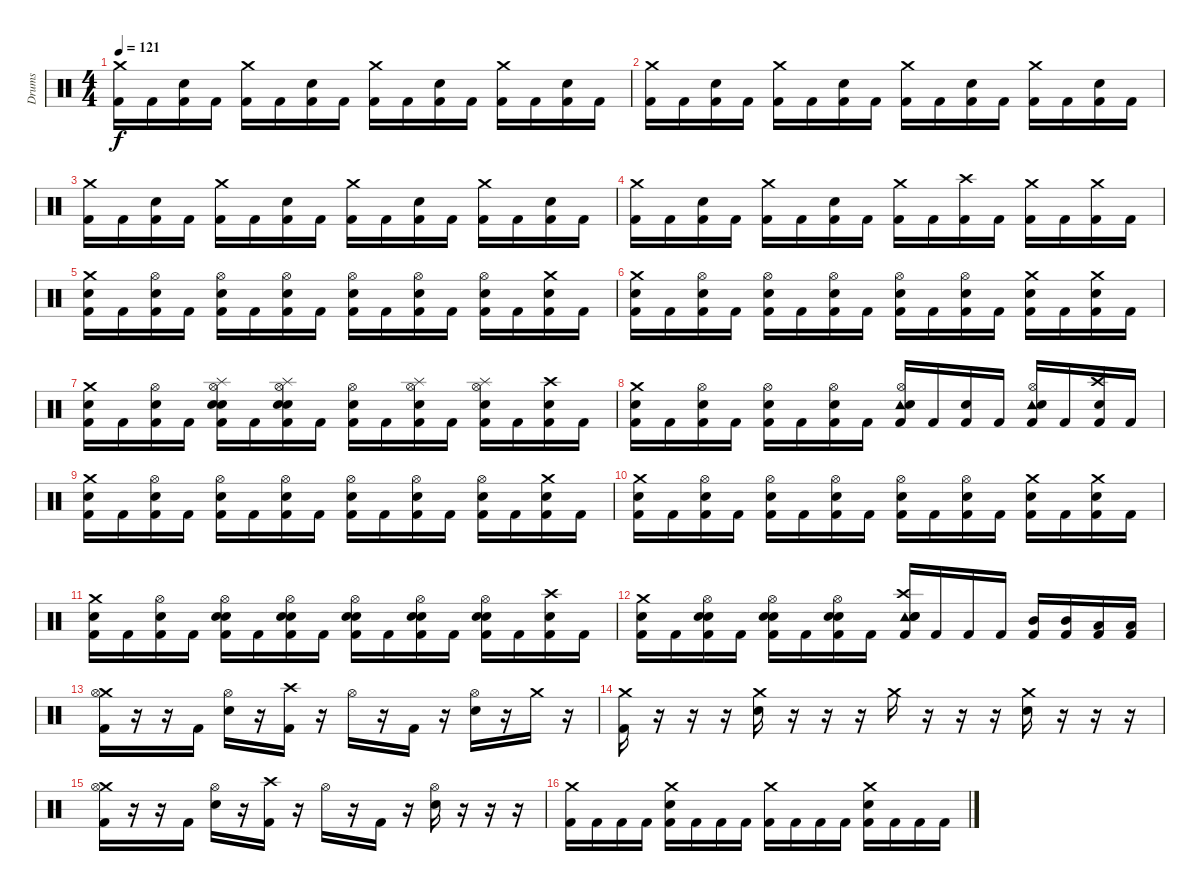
\track ("Drums" "Drums") {instrument percussion}
\staff {score}
\articulation defaults
\ts (4 4)
\tempo 121
\clef neutral
\ks c
("Crash medium (hit)" "Kick (hit) 2").16{dy f} "Kick (hit) 2".16 ("Electric Snare (hit)" "Kick (hit) 2").16 "Kick (hit) 2".16 ("Crash medium (hit)" "Kick (hit) 2").16 "Kick (hit) 2".16 ("Electric Snare (hit)" "Kick (hit) 2").16 "Kick (hit) 2".16 ("Crash medium (hit)" "Kick (hit) 2").16 "Kick (hit) 2".16 ("Electric Snare (hit)" "Kick (hit) 2").16 "Kick (hit) 2".16 ("Crash medium (hit)" "Kick (hit) 2").16 "Kick (hit) 2".16 ("Electric Snare (hit)" "Kick (hit) 2").16 "Kick (hit) 2".16 |
("Crash medium (hit)" "Kick (hit) 2").16 "Kick (hit) 2".16 ("Electric Snare (hit)" "Kick (hit) 2").16 "Kick (hit) 2".16 ("Crash medium (hit)" "Kick (hit) 2").16 "Kick (hit) 2".16 ("Electric Snare (hit)" "Kick (hit) 2").16 "Kick (hit) 2".16 ("Crash medium (hit)" "Kick (hit) 2").16 "Kick (hit) 2".16 ("Electric Snare (hit)" "Kick (hit) 2").16 "Kick (hit) 2".16 ("Crash medium (hit)" "Kick (hit) 2").16 "Kick (hit) 2".16 ("Electric Snare (hit)" "Kick (hit) 2").16 "Kick (hit) 2".16 |
("Crash medium (hit)" "Kick (hit) 2").16 "Kick (hit) 2".16 ("Electric Snare (hit)" "Kick (hit) 2").16 "Kick (hit) 2".16 ("Crash medium (hit)" "Kick (hit) 2").16 "Kick (hit) 2".16 ("Electric Snare (hit)" "Kick (hit) 2").16 "Kick (hit) 2".16 ("Crash medium (hit)" "Kick (hit) 2").16 "Kick (hit) 2".16 ("Electric Snare (hit)" "Kick (hit) 2").16 "Kick (hit) 2".16 ("Crash medium (hit)" "Kick (hit) 2").16 "Kick (hit) 2".16 ("Electric Snare (hit)" "Kick (hit) 2").16 "Kick (hit) 2".16 |
("Crash medium (hit)" "Kick (hit) 2").16 "Kick (hit) 2".16 ("Electric Snare (hit)" "Kick (hit) 2").16 "Kick (hit) 2".16 ("Crash medium (hit)" "Kick (hit) 2").16 "Kick (hit) 2".16 ("Electric Snare (hit)" "Kick (hit) 2").16 "Kick (hit) 2".16 ("Crash medium (hit)" "Kick (hit) 2").16 "Kick (hit) 2".16 ("Crash high (hit)" "Kick (hit) 2").16 "Kick (hit) 2".16 ("Crash medium (hit)" "Kick (hit) 2").16 "Kick (hit) 2".16 ("Crash medium (hit)" "Kick (hit) 2").16 "Kick (hit) 2".16 |
("Crash medium (hit)" "Snare (hit) 2" "Kick (hit) 2").16 "Kick (hit) 2".16 ("Hi-Hat (open)" "Snare (hit) 2" "Kick (hit) 2").16 "Kick (hit) 2".16 ("Hi-Hat (open)" "Snare (hit) 2" "Kick (hit) 2").16 "Kick (hit) 2".16 ("Hi-Hat (open)" "Snare (hit) 2" "Kick (hit) 2").16 "Kick (hit) 2".16 ("Hi-Hat (open)" "Snare (hit) 2" "Kick (hit) 2").16 "Kick (hit) 2".16 ("Hi-Hat (open)" "Snare (hit) 2" "Kick (hit) 2").16 "Kick (hit) 2".16 ("Hi-Hat (open)" "Snare (hit) 2" "Kick (hit) 2").16 "Kick (hit) 2".16 ("Crash medium (hit)" "Snare (hit) 2" "Kick (hit) 2").16 "Kick (hit) 2".16 |
("Crash medium (hit)" "Snare (hit) 2" "Kick (hit) 2").16 "Kick (hit) 2".16 ("Hi-Hat (open)" "Snare (hit) 2" "Kick (hit) 2").16 "Kick (hit) 2".16 ("Hi-Hat (open)" "Snare (hit) 2" "Kick (hit) 2").16 "Kick (hit) 2".16 ("Hi-Hat (open)" "Snare (hit) 2" "Kick (hit) 2").16 "Kick (hit) 2".16 ("Hi-Hat (open)" "Snare (hit) 2" "Kick (hit) 2").16 "Kick (hit) 2".16 ("Hi-Hat (open)" "Snare (hit) 2" "Kick (hit) 2").16 "Kick (hit) 2".16 ("Crash medium (hit)" "Snare (hit) 2" "Kick (hit) 2").16 "Kick (hit) 2".16 ("Crash medium (hit)" "Snare (hit) 2" "Kick (hit) 2").16 "Kick (hit) 2".16 |
("Crash medium (hit)" "Snare (hit) 2" "Kick (hit) 2").16 "Kick (hit) 2".16 ("Hi-Hat (open)" "Snare (hit) 2" "Kick (hit) 2").16 "Kick (hit) 2".16 ("Hi-Hat (open)" "Splash (hit)" "Electric Snare (hit)" "Snare (hit) 2" "Kick (hit) 2").16 "Kick (hit) 2".16 ("Hi-Hat (open)" "Splash (hit)" "Electric Snare (hit)" "Snare (hit) 2" "Kick (hit) 2").16 "Kick (hit) 2".16 ("Hi-Hat (open)" "Snare (hit) 2" "Kick (hit) 2").16 "Kick (hit) 2".16 ("Hi-Hat (open)" "Splash (hit)" "Snare (hit) 2" "Kick (hit) 2").16 "Kick (hit) 2".16 ("Hi-Hat (open)" "Splash (hit)" "Snare (hit) 2" "Kick (hit) 2").16 "Kick (hit) 2".16 ("Crash high (hit)" "Snare (hit) 2" "Kick (hit) 2").16 "Kick (hit) 2".16 |
("Crash medium (hit)" "Snare (hit) 2" "Kick (hit) 2").16 "Kick (hit) 2".16 ("Hi-Hat (open)" "Snare (hit) 2" "Kick (hit) 2").16 "Kick (hit) 2".16 ("Hi-Hat (open)" "Snare (hit) 2" "Kick (hit) 2").16 "Kick (hit) 2".16 ("Hi-Hat (open)" "Snare (hit) 2" "Kick (hit) 2").16 "Kick (hit) 2".16 ("Hi-Hat (open)" "Tambourine (hit)" "Snare (hit) 2" "Kick (hit) 2").16 "Kick (hit) 2".16 ("Snare (hit) 2" "Kick (hit) 2").16 "Kick (hit) 2".16 ("Hi-Hat (open)" "Tambourine (hit)" "Snare (hit) 2" "Kick (hit) 2").16 "Kick (hit) 2".16 ("Crash high (hit)" "Snare (hit) 2" "Kick (hit) 2").16 "Kick (hit) 2".16 |
("Crash medium (hit)" "Snare (hit) 2" "Kick (hit) 2").16 "Kick (hit) 2".16 ("Hi-Hat (open)" "Snare (hit) 2" "Kick (hit) 2").16 "Kick (hit) 2".16 ("Hi-Hat (open)" "Snare (hit) 2" "Kick (hit) 2").16 "Kick (hit) 2".16 ("Hi-Hat (open)" "Snare (hit) 2" "Kick (hit) 2").16 "Kick (hit) 2".16 ("Hi-Hat (open)" "Snare (hit) 2" "Kick (hit) 2").16 "Kick (hit) 2".16 ("Hi-Hat (open)" "Snare (hit) 2" "Kick (hit) 2").16 "Kick (hit) 2".16 ("Hi-Hat (open)" "Snare (hit) 2" "Kick (hit) 2").16 "Kick (hit) 2".16 ("Crash medium (hit)" "Snare (hit) 2" "Kick (hit) 2").16 "Kick (hit) 2".16 |
("Crash medium (hit)" "Snare (hit) 2" "Kick (hit) 2").16 "Kick (hit) 2".16 ("Hi-Hat (open)" "Snare (hit) 2" "Kick (hit) 2").16 "Kick (hit) 2".16 ("Hi-Hat (open)" "Snare (hit) 2" "Kick (hit) 2").16 "Kick (hit) 2".16 ("Hi-Hat (open)" "Snare (hit) 2" "Kick (hit) 2").16 "Kick (hit) 2".16 ("Hi-Hat (open)" "Snare (hit) 2" "Kick (hit) 2").16 "Kick (hit) 2".16 ("Hi-Hat (open)" "Snare (hit) 2" "Kick (hit) 2").16 "Kick (hit) 2".16 ("Crash medium (hit)" "Snare (hit) 2" "Kick (hit) 2").16 "Kick (hit) 2".16 ("Crash medium (hit)" "Snare (hit) 2" "Kick (hit) 2").16 "Kick (hit) 2".16 |
("Crash medium (hit)" "Snare (hit) 2" "Kick (hit) 2").16 "Kick (hit) 2".16 ("Hi-Hat (open)" "Snare (hit) 2" "Kick (hit) 2").16 "Kick (hit) 2".16 ("Hi-Hat (open)" "Electric Snare (hit)" "Snare (hit) 2" "Kick (hit) 2").16 "Kick (hit) 2".16 ("Hi-Hat (open)" "Electric Snare (hit)" "Snare (hit) 2" "Kick (hit) 2").16 "Kick (hit) 2".16 ("Hi-Hat (open)" "Electric Snare (hit)" "Snare (hit) 2" "Kick (hit) 2").16 "Kick (hit) 2".16 ("Hi-Hat (open)" "Electric Snare (hit)" "Snare (hit) 2" "Kick (hit) 2").16 "Kick (hit) 2".16 ("Hi-Hat (open)" "Electric Snare (hit)" "Snare (hit) 2" "Kick (hit) 2").16 "Kick (hit) 2".16 ("Crash high (hit)" "Snare (hit) 2" "Kick (hit) 2").16 "Kick (hit) 2".16 |
("Crash medium (hit)" "Snare (hit) 2" "Kick (hit) 2").16 "Kick (hit) 2".16 ("Hi-Hat (open)" "Electric Snare (hit)" "Snare (hit) 2" "Kick (hit) 2").16 "Kick (hit) 2".16 ("Hi-Hat (open)" "Electric Snare (hit)" "Snare (hit) 2" "Kick (hit) 2").16 "Kick (hit) 2".16 ("Hi-Hat (open)" "Electric Snare (hit)" "Snare (hit) 2" "Kick (hit) 2").16 "Kick (hit) 2".16 ("Crash high (hit)" "Tambourine (hit)" "Electric Snare (hit)" "Snare (hit) 2" "Kick (hit) 2").16 "Kick (hit) 2".16 "Kick (hit) 2".16 "Kick (hit) 2".16 ("Mid Tom (hit)" "Kick (hit) 2").16 ("Mid Tom (hit)" "Kick (hit) 2").16 ("Low Tom (hit)" "Kick (hit) 2").16 ("Low Tom (hit)" "Kick (hit) 2").16 |
("Crash medium (hit)" "Hi-Hat (open)" "Kick (hit) 2").16 r.16 r.16 "Kick (hit) 2".16 ("Hi-Hat (open)" "Electric Snare (hit)").16 r.16 ("Crash high (hit)" "Kick (hit) 2").16 r.16 "Hi-Hat (open)".16 r.16 "Kick (hit) 2".16 r.16 ("Hi-Hat (open)" "Electric Snare (hit)").16 r.16 "Crash medium (hit)".16 r.16 |
("Crash medium (hit)" "Kick (hit) 2").16 r.16 r.16 r.16 ("Crash medium (hit)" "Electric Snare (hit)").16 r.16 r.16 r.16 "Crash medium (hit)".16 r.16 r.16 r.16 ("Crash medium (hit)" "Electric Snare (hit)").16 r.16 r.16 r.16 |
("Crash medium (hit)" "Hi-Hat (open)" "Kick (hit) 2").16 r.16 r.16 "Kick (hit) 2".16 ("Hi-Hat (open)" "Electric Snare (hit)").16 r.16 ("Crash high (hit)" "Kick (hit) 2").16 r.16 "Hi-Hat (open)".16 r.16 "Kick (hit) 2".16 r.16 ("Hi-Hat (open)" "Electric Snare (hit)").16 r.16 r.16 r.16 |
("Crash medium (hit)" "Kick (hit) 2").16 "Kick (hit) 2".16 "Kick (hit) 2".16 "Kick (hit) 2".16 ("Crash medium (hit)" "Electric Snare (hit)" "Kick (hit) 2").16 "Kick (hit) 2".16 "Kick (hit) 2".16 "Kick (hit) 2".16 ("Crash medium (hit)" "Kick (hit) 2").16 "Kick (hit) 2".16 "Kick (hit) 2".16 "Kick (hit) 2".16 ("Crash medium (hit)" "Electric Snare (hit)" "Kick (hit) 2").16 "Kick (hit) 2".16 "Kick (hit) 2".16 "Kick (hit) 2".16
